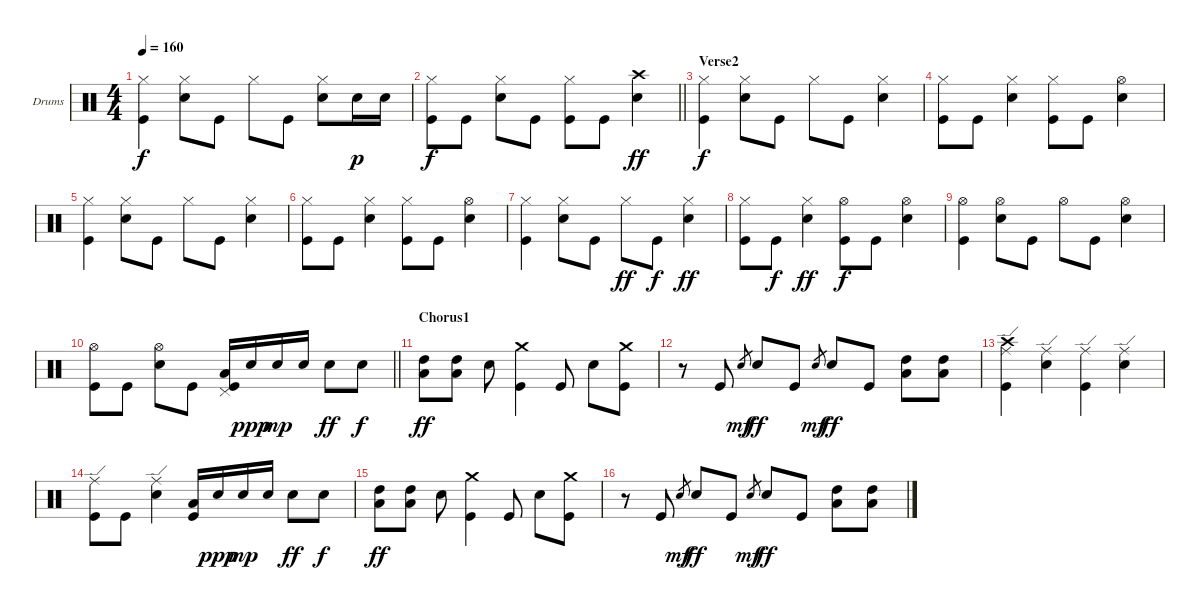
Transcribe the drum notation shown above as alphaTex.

\bracketExtendMode groupsimilarinstruments
\firstSystemTrackNameOrientation horizontal
\otherSystemsTrackNameOrientation horizontal
\track ("Jean-Paul Gaster" "Drums") {instrument percussion}
\staff {score}
\articulation defaults
\ts (4 4)
\tempo 160
\clef neutral
\ks c
("Hi-Hat (closed)" "Kick (hit)").4{dy f} ("Hi-Hat (closed)" "Snare (hit) 2").8 "Kick (hit)".8 "Hi-Hat (closed)".8 "Kick (hit)".8 ("Hi-Hat (closed)" "Snare (hit) 2").8 "Snare (hit) 2".16{dy p} "Snare (hit) 2".16 |
\barLineRight lightlight
("Hi-Hat (closed)" "Kick (hit)").8{dy f} "Kick (hit)".8 ("Hi-Hat (closed)" "Snare (hit) 2").8 "Kick (hit)".8 ("Hi-Hat (closed)" "Kick (hit)").8 "Kick (hit)".8 ("Crash high (hit)" "Snare (hit) 2").4{dy ff} |
\section ("" "Verse2")
("Hi-Hat (closed)" "Kick (hit)").4{dy f} ("Hi-Hat (closed)" "Snare (hit) 2").8 "Kick (hit)".8 "Hi-Hat (closed)".8 "Kick (hit)".8 ("Hi-Hat (closed)" "Snare (hit) 2").4 |
("Hi-Hat (closed)" "Kick (hit)").8 "Kick (hit)".8 ("Hi-Hat (closed)" "Snare (hit) 2").4 ("Hi-Hat (closed)" "Kick (hit)").8 "Kick (hit)".8 ("Hi-Hat (open)" "Snare (hit) 2").4 |
("Hi-Hat (closed)" "Kick (hit)").4 ("Hi-Hat (closed)" "Snare (hit) 2").8 "Kick (hit)".8 "Hi-Hat (closed)".8 "Kick (hit)".8 ("Hi-Hat (closed)" "Snare (hit) 2").4 |
("Hi-Hat (closed)" "Kick (hit)").8 "Kick (hit)".8 ("Hi-Hat (closed)" "Snare (hit) 2").4 ("Hi-Hat (closed)" "Kick (hit)").8 "Kick (hit)".8 ("Hi-Hat (open)" "Snare (hit) 2").4 |
("Hi-Hat (closed)" "Kick (hit)").4 ("Hi-Hat (closed)" "Snare (hit) 2").8 "Kick (hit)".8 "Hi-Hat (closed)".8{dy ff} "Kick (hit)".8{dy f} ("Hi-Hat (closed)" "Snare (hit) 2").4{dy ff} |
("Hi-Hat (closed)" "Kick (hit)").8 "Kick (hit)".8{dy f} ("Hi-Hat (closed)" "Snare (hit) 2").4{dy ff} ("Hi-Hat (open)" "Kick (hit)").8{dy f} "Kick (hit)".8 ("Hi-Hat (open)" "Snare (hit) 2").4 |
("Hi-Hat (open)" "Kick (hit)").4 ("Hi-Hat (open)" "Snare (hit) 2").8 "Kick (hit)".8 "Hi-Hat (open)".8 "Kick (hit)".8 ("Hi-Hat (open)" "Snare (hit) 2").4 |
\barLineRight lightlight
("Hi-Hat (open)" "Kick (hit)").8 "Kick (hit)".8 ("Hi-Hat (open)" "Snare (hit) 2").8 "Kick (hit)".8 ("Pedal Hi-Hat (hit)" "Low Tom (hit)" "Kick (hit)").16 "Snare (hit) 2".16{dy ppp} "Snare (hit) 2".16{dy mp} "Snare (hit) 2".16 "Snare (hit) 2".8{dy ff} "Snare (hit) 2".8{dy f} |
\section ("" "Chorus1")
("High Tom (hit)" "Low Tom (hit)").8{dy ff} ("High Tom (hit)" "Low Tom (hit)").8 "Snare (hit) 2".8 ("Crash medium (hit)" "Kick (hit)").4 "Kick (hit)".8 "Snare (hit) 2".8 ("Crash medium (hit)" "Kick (hit)").8 |
r.8 "Kick (hit)".8 "Snare (hit) 2".8{gr dy mf} "Snare (hit) 2".8{dy ff} "Kick (hit)".8 "Snare (hit) 2".8{gr dy mf} "Snare (hit) 2".8{dy ff} "Kick (hit)".8 ("High Tom (hit)" "Low Tom (hit)").8 ("High Tom (hit)" "Low Tom (hit)").8 |
("Ride (edge)" "Crash high (hit)" "Kick (hit)").4 ("Ride (edge)" "Snare (hit) 2").4 ("Ride (edge)" "Kick (hit)").4 ("Ride (edge)" "Snare (hit) 2").4 |
("Ride (edge)" "Kick (hit)").8 "Kick (hit)".8 ("Ride (edge)" "Snare (hit) 2").4 ("Low Tom (hit)" "Kick (hit)").16 "Snare (hit) 2".16{dy ppp} "Snare (hit) 2".16{dy mp} "Snare (hit) 2".16 "Snare (hit) 2".8{dy ff} "Snare (hit) 2".8{dy f} |
("High Tom (hit)" "Low Tom (hit)").8{dy ff} ("High Tom (hit)" "Low Tom (hit)").8 "Snare (hit) 2".8 ("Crash medium (hit)" "Kick (hit)").4 "Kick (hit)".8 "Snare (hit) 2".8 ("Crash medium (hit)" "Kick (hit)").8 |
r.8 "Kick (hit)".8 "Snare (hit) 2".8{gr dy mf} "Snare (hit) 2".8{dy ff} "Kick (hit)".8 "Snare (hit) 2".8{gr dy mf} "Snare (hit) 2".8{dy ff} "Kick (hit)".8 ("High Tom (hit)" "Low Tom (hit)").8 ("High Tom (hit)" "Low Tom (hit)").8
